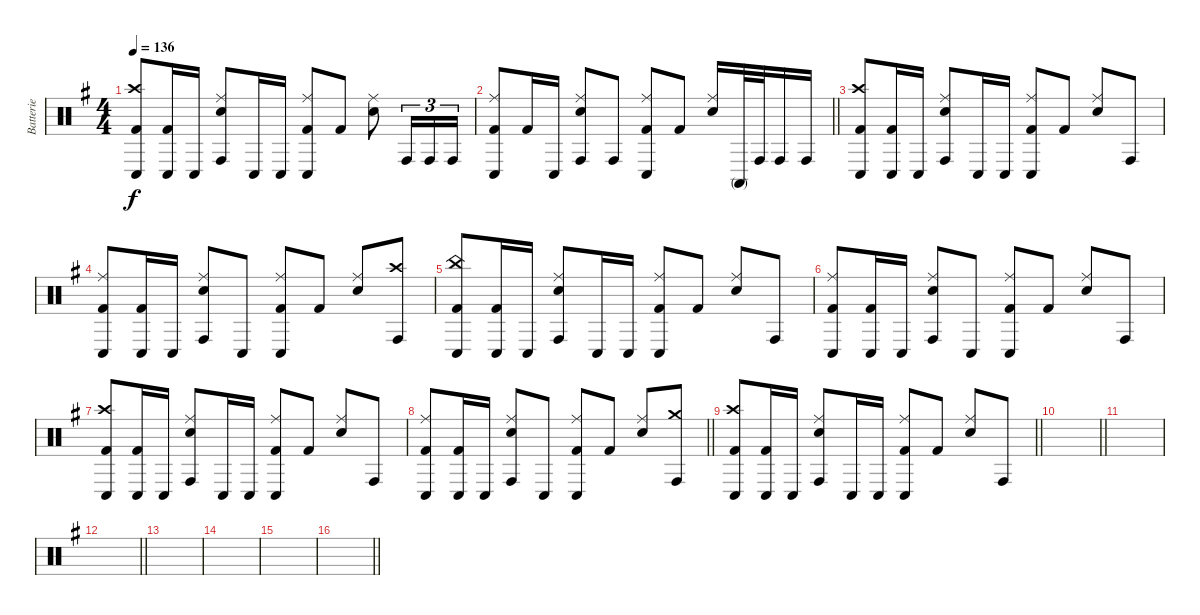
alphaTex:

\track ("Batterie" "Batterie") {instrument percussion}
\staff {score}
\articulation defaults
\ts (4 4)
\tempo 136
\clef neutral
\ks g
("Crash high (hit)" "Conga low (hit)" "Kick (hit) 2").8{dy f} ("Conga low (hit)" "Kick (hit) 2").16 "Conga low (hit)".16 ("Ride (middle)" "Conga high (hit)" "Snare (hit) 2").8 "Conga low (hit)".16 "Conga low (hit)".16 ("Ride (middle)" "Conga low (hit)" "Kick (hit) 2").8 "Kick (hit) 2".8 ("Ride (middle)" "Snare (hit) 2").8 "Conga high (hit)".16{tu (3 2)} "Conga high (hit)".16{tu (3 2)} "Conga high (hit)".16{tu (3 2)} |
\barLineRight lightlight
("Ride (middle)" "Conga low (hit)" "Kick (hit) 2").8 "Kick (hit) 2".16 "Conga low (hit)".16 ("Ride (middle)" "Conga high (hit)" "Snare (hit) 2").8 "Conga high (hit)".8 ("Ride (middle)" "Conga low (hit)" "Kick (hit) 2").8 "Kick (hit) 2".8 ("Ride (middle)" "Snare (hit) 2").16 "Conga high (mute)".32 "Conga high (hit)".32 "Conga high (hit)".16 "Conga high (hit)".16 |
("Crash high (hit)" "Conga low (hit)" "Kick (hit) 2").8 ("Conga low (hit)" "Kick (hit) 2").16 "Conga low (hit)".16 ("Ride (middle)" "Conga high (hit)" "Snare (hit) 2").8 "Conga low (hit)".16 "Conga low (hit)".16 ("Ride (middle)" "Conga low (hit)" "Kick (hit) 2").8 "Kick (hit) 2".8 ("Ride (middle)" "Snare (hit) 2").8 "Conga high (hit)".8 |
("Ride (middle)" "Conga low (hit)" "Kick (hit) 2").8 ("Conga low (hit)" "Kick (hit) 2").16 "Conga low (hit)".16 ("Ride (middle)" "Conga high (hit)" "Snare (hit) 2").8 "Conga low (hit)".8 ("Ride (middle)" "Conga low (hit)" "Kick (hit) 2").8 "Kick (hit) 2".8 ("Ride (middle)" "Snare (hit) 2").8 ("Crash high (hit)" "Conga high (hit)").8 |
("China (hit)" "Conga low (hit)" "Kick (hit) 2").8 ("Conga low (hit)" "Kick (hit) 2").16 "Conga low (hit)".16 ("Ride (middle)" "Conga high (hit)" "Snare (hit) 2").8 "Conga low (hit)".16 "Conga low (hit)".16 ("Ride (middle)" "Conga low (hit)" "Kick (hit) 2").8 "Kick (hit) 2".8 ("Ride (middle)" "Snare (hit) 2").8 "Conga high (hit)".8 |
("Ride (middle)" "Conga low (hit)" "Kick (hit) 2").8 ("Conga low (hit)" "Kick (hit) 2").16 "Conga low (hit)".16 ("Ride (middle)" "Conga high (hit)" "Snare (hit) 2").8 "Conga low (hit)".8 ("Ride (middle)" "Conga low (hit)" "Kick (hit) 2").8 "Kick (hit) 2".8 ("Ride (middle)" "Snare (hit) 2").8 "Conga high (hit)".8 |
("Crash high (hit)" "Conga low (hit)" "Kick (hit) 2").8 ("Conga low (hit)" "Kick (hit) 2").16 "Conga low (hit)".16 ("Ride (middle)" "Conga high (hit)" "Snare (hit) 2").8 "Conga low (hit)".16 "Conga low (hit)".16 ("Ride (middle)" "Conga low (hit)" "Kick (hit) 2").8 "Kick (hit) 2".8 ("Ride (middle)" "Snare (hit) 2").8 "Conga high (hit)".8 |
\barLineRight lightlight
("Ride (middle)" "Conga low (hit)" "Kick (hit) 2").8 ("Conga low (hit)" "Kick (hit) 2").16 "Conga low (hit)".16 ("Ride (middle)" "Conga high (hit)" "Snare (hit) 2").8 "Conga low (hit)".8 ("Ride (middle)" "Conga low (hit)" "Kick (hit) 2").8 "Kick (hit) 2".8 ("Ride (middle)" "Snare (hit) 2").8 ("Crash medium (hit)" "Conga high (hit)").8 |
\barLineRight lightlight
("Crash high (hit)" "Conga low (hit)" "Kick (hit) 2").8{volume 0} ("Conga low (hit)" "Kick (hit) 2").16 "Conga low (hit)".16 ("Ride (middle)" "Conga high (hit)" "Snare (hit) 2").8 "Conga low (hit)".16 "Conga low (hit)".16 ("Ride (middle)" "Conga low (hit)" "Kick (hit) 2").8 "Kick (hit) 2".8 ("Ride (middle)" "Snare (hit) 2").8 "Conga high (hit)".8 |
\barLineRight lightlight
|
|
\barLineRight lightlight
|
|
|
|
\barLineRight lightlight
